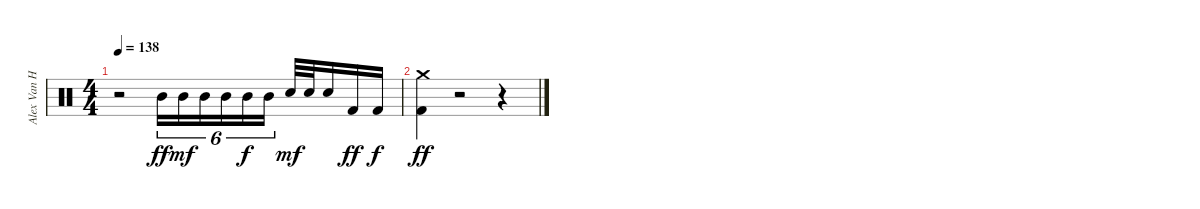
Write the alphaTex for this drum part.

\track ("Alex Van Halen " "Alex Van H") {instrument percussion}
\staff {score}
\articulation defaults
\ts (4 4)
\tempo 138
\clef neutral
\ks c
r.2{dy ff} "Mid Tom (hit)".16{tu (6 4)} "Mid Tom (hit)".16{tu (6 4) dy mf} "Mid Tom (hit)".16{tu (6 4)} "Mid Tom (hit)".16{tu (6 4)} "Mid Tom (hit)".16{tu (6 4) dy f} "Mid Tom (hit)".16{tu (6 4)} "Snare (hit) 2".32{dy mf} "Snare (hit) 2".32 "Snare (hit) 2".16 "Kick (hit) 2".16{dy ff} "Kick (hit) 2".16{dy f} |
("Crash medium (hit)" "Kick (hit) 2").4{dy ff} r.2 r.4
